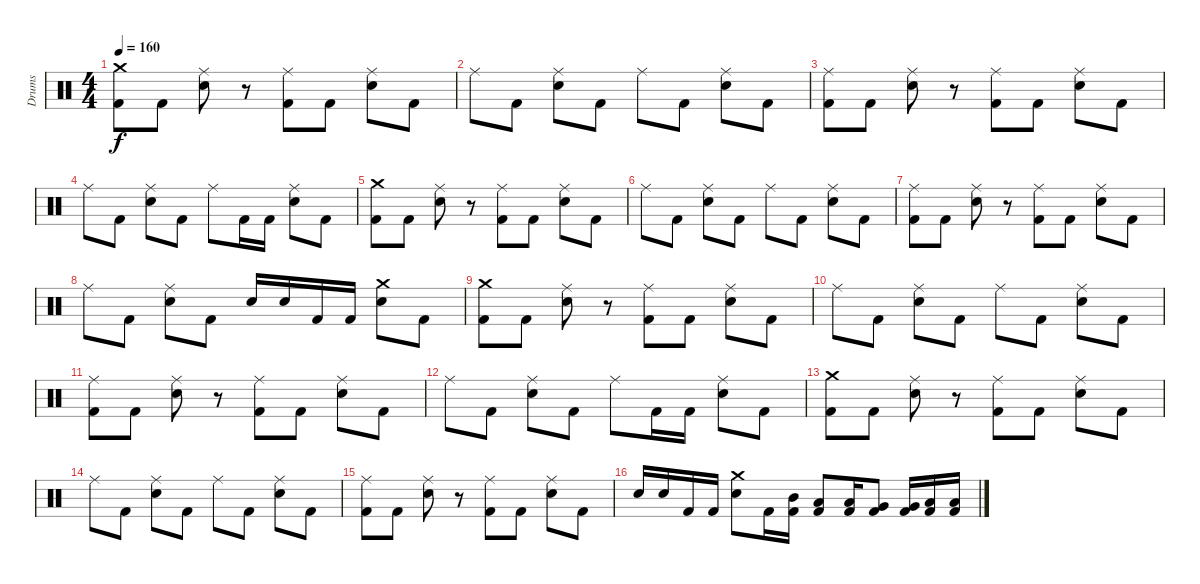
\track ("Drums" "Drums") {instrument percussion}
\staff {score}
\articulation defaults
\ts (4 4)
\section ("" "")
\tempo 160
\clef neutral
\ks c
("Crash medium (hit)" "Kick (hit) 2").8{dy f} "Kick (hit) 2".8 ("Ride (middle)" "Electric Snare (hit)").8 r.8 ("Ride (middle)" "Kick (hit) 2").8 "Kick (hit) 2".8 ("Ride (middle)" "Electric Snare (hit)").8 "Kick (hit) 2".8 |
"Ride (middle)".8 "Kick (hit) 2".8 ("Ride (middle)" "Electric Snare (hit)").8 "Kick (hit) 2".8 "Ride (middle)".8 "Kick (hit) 2".8 ("Ride (middle)" "Electric Snare (hit)").8 "Kick (hit) 2".8 |
("Ride (middle)" "Kick (hit) 2").8 "Kick (hit) 2".8 ("Ride (middle)" "Electric Snare (hit)").8 r.8 ("Ride (middle)" "Kick (hit) 2").8 "Kick (hit) 2".8 ("Ride (middle)" "Electric Snare (hit)").8 "Kick (hit) 2".8 |
"Ride (middle)".8 "Kick (hit) 2".8 ("Ride (middle)" "Electric Snare (hit)").8 "Kick (hit) 2".8 "Ride (middle)".8 "Kick (hit) 2".16 "Kick (hit) 2".16 ("Ride (middle)" "Electric Snare (hit)").8 "Kick (hit) 2".8 |
("Crash medium (hit)" "Kick (hit) 2").8 "Kick (hit) 2".8 ("Ride (middle)" "Electric Snare (hit)").8 r.8 ("Ride (middle)" "Kick (hit) 2").8 "Kick (hit) 2".8 ("Ride (middle)" "Electric Snare (hit)").8 "Kick (hit) 2".8 |
"Ride (middle)".8 "Kick (hit) 2".8 ("Ride (middle)" "Electric Snare (hit)").8 "Kick (hit) 2".8 "Ride (middle)".8 "Kick (hit) 2".8 ("Ride (middle)" "Electric Snare (hit)").8 "Kick (hit) 2".8 |
("Ride (middle)" "Kick (hit) 2").8 "Kick (hit) 2".8 ("Ride (middle)" "Electric Snare (hit)").8 r.8 ("Ride (middle)" "Kick (hit) 2").8 "Kick (hit) 2".8 ("Ride (middle)" "Electric Snare (hit)").8 "Kick (hit) 2".8 |
"Ride (middle)".8 "Kick (hit) 2".8 ("Ride (middle)" "Electric Snare (hit)").8 "Kick (hit) 2".8 "Electric Snare (hit)".16 "Electric Snare (hit)".16 "Kick (hit) 2".16 "Kick (hit) 2".16 ("Crash medium (hit)" "Electric Snare (hit)").8 "Kick (hit) 2".8 |
("Crash medium (hit)" "Kick (hit) 2").8 "Kick (hit) 2".8 ("Ride (middle)" "Electric Snare (hit)").8 r.8 ("Ride (middle)" "Kick (hit) 2").8 "Kick (hit) 2".8 ("Ride (middle)" "Electric Snare (hit)").8 "Kick (hit) 2".8 |
"Ride (middle)".8 "Kick (hit) 2".8 ("Ride (middle)" "Electric Snare (hit)").8 "Kick (hit) 2".8 "Ride (middle)".8 "Kick (hit) 2".8 ("Ride (middle)" "Electric Snare (hit)").8 "Kick (hit) 2".8 |
("Ride (middle)" "Kick (hit) 2").8 "Kick (hit) 2".8 ("Ride (middle)" "Electric Snare (hit)").8 r.8 ("Ride (middle)" "Kick (hit) 2").8 "Kick (hit) 2".8 ("Ride (middle)" "Electric Snare (hit)").8 "Kick (hit) 2".8 |
"Ride (middle)".8 "Kick (hit) 2".8 ("Ride (middle)" "Electric Snare (hit)").8 "Kick (hit) 2".8 "Ride (middle)".8 "Kick (hit) 2".16 "Kick (hit) 2".16 ("Ride (middle)" "Electric Snare (hit)").8 "Kick (hit) 2".8 |
("Crash medium (hit)" "Kick (hit) 2").8 "Kick (hit) 2".8 ("Ride (middle)" "Electric Snare (hit)").8 r.8 ("Ride (middle)" "Kick (hit) 2").8 "Kick (hit) 2".8 ("Ride (middle)" "Electric Snare (hit)").8 "Kick (hit) 2".8 |
"Ride (middle)".8 "Kick (hit) 2".8 ("Ride (middle)" "Electric Snare (hit)").8 "Kick (hit) 2".8 "Ride (middle)".8 "Kick (hit) 2".8 ("Ride (middle)" "Electric Snare (hit)").8 "Kick (hit) 2".8 |
("Ride (middle)" "Kick (hit) 2").8 "Kick (hit) 2".8 ("Ride (middle)" "Electric Snare (hit)").8 r.8 ("Ride (middle)" "Kick (hit) 2").8 "Kick (hit) 2".8 ("Ride (middle)" "Electric Snare (hit)").8 "Kick (hit) 2".8 |
"Electric Snare (hit)".16 "Electric Snare (hit)".16 "Kick (hit) 2".16 "Kick (hit) 2".16 ("Crash medium (hit)" "Electric Snare (hit)").8 "Kick (hit) 2".16 ("Mid Tom (hit)" "Kick (hit) 2").16 ("Low Tom (hit)" "Kick (hit) 2").8 ("Low Tom (hit)" "Kick (hit) 2").16 ("Very Low Tom (hit)" "Kick (hit) 2").8 ("Very Low Tom (hit)" "Kick (hit) 2").16 ("Low Floor Tom (hit)" "Kick (hit) 2").16 ("Low Floor Tom (hit)" "Kick (hit) 2").16
